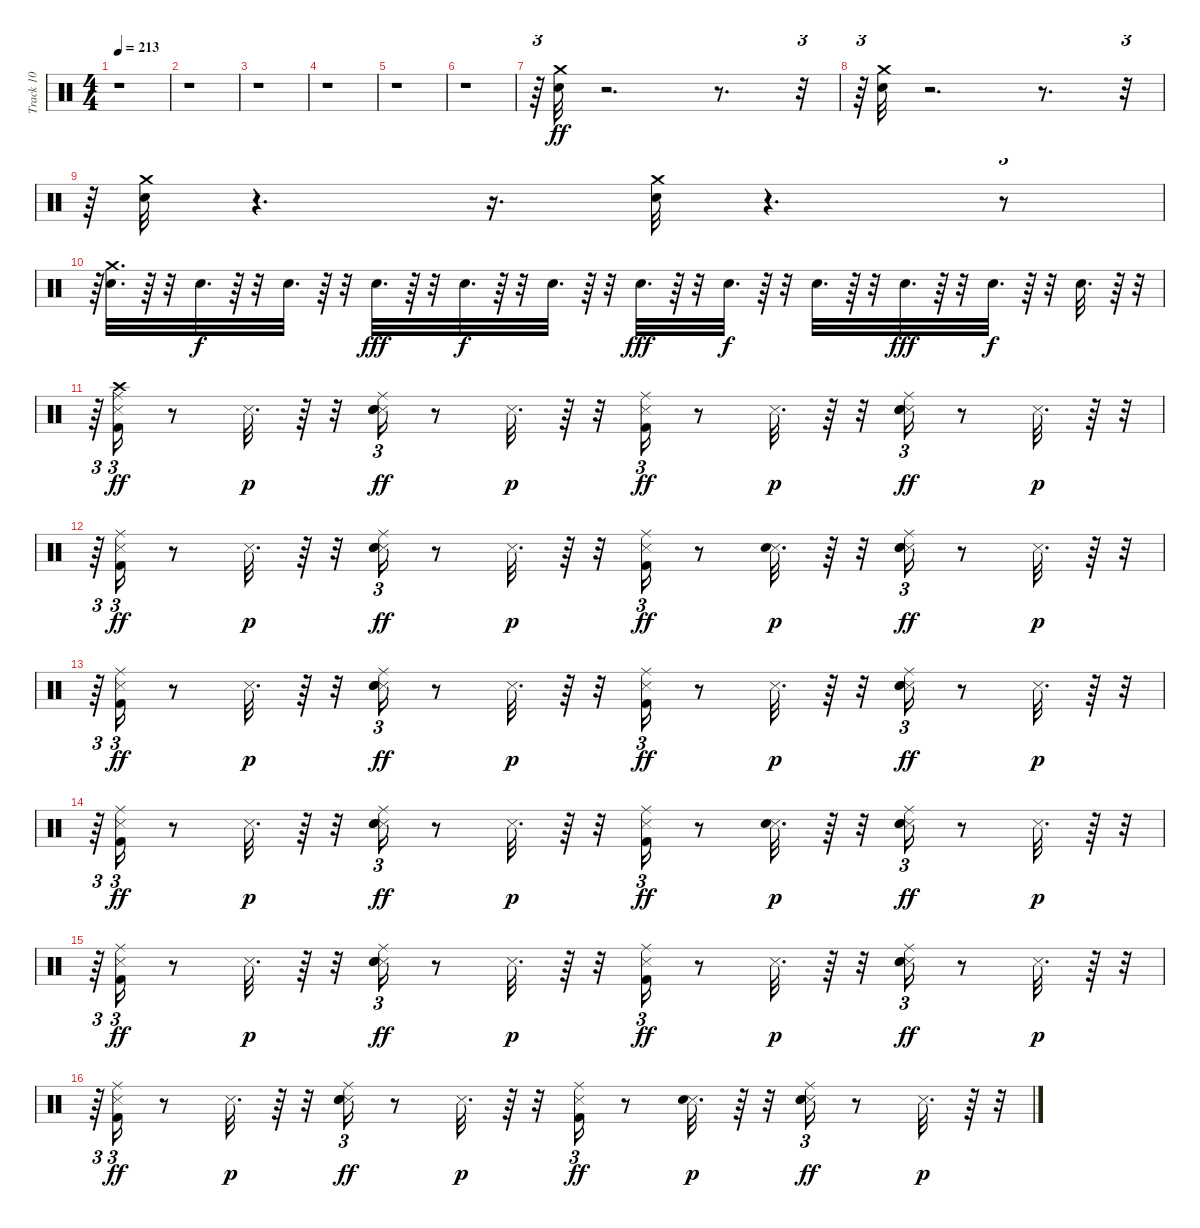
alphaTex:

\track ("Track 10" "Track 10") {instrument percussion}
\staff {score}
\articulation defaults
\ts (4 4)
\tempo 213
\clef neutral
\ks c
r.1{dy ff} |
r.1 |
r.1 |
r.1 |
r.1 |
r.1 |
r.64{tu (3 2)} ("Electric Snare (hit)" "Crash medium (hit)").32 r.2{d} r.8{d} r.32{tu (3 2)} |
r.64{tu (3 2)} ("Electric Snare (hit)" "Crash medium (hit)").32 r.2{d} r.8{d} r.32{tu (3 2)} |
r.64{tu (3 2)} ("Electric Snare (hit)" "Crash medium (hit)").32 r.4{d} r.16{d} ("Electric Snare (hit)" "Crash medium (hit)").32 r.4{d} r.8{tu (3 2)} |
r.64{tu (3 2)} ("Electric Snare (hit)" "Crash medium (hit)").32{d} r.64 r.32 "Electric Snare (hit)".32{d dy f} r.64 r.32 "Electric Snare (hit)".32{d} r.64 r.32 "Electric Snare (hit)".32{d dy fff} r.64 r.32 "Electric Snare (hit)".32{d dy f} r.64 r.32 "Electric Snare (hit)".32{d} r.64 r.32 "Electric Snare (hit)".32{d dy fff} r.64 r.32 "Electric Snare (hit)".32{d dy f} r.64 r.32 "Electric Snare (hit)".32{d} r.64 r.32 "Electric Snare (hit)".32{d dy fff} r.64 r.32 "Electric Snare (hit)".32{d dy f} r.64 r.32 "Electric Snare (hit)".32{d} r.64 r.32{tu (3 2)} |
r.64{tu (3 2)} ("Kick (hit) 2" "Snare (side stick) 3" "Crash high (hit)" "Ride (middle)").16{tu (3 2) dy ff} r.8 "Snare (side stick) 3".32{d dy p} r.64 r.32 ("Snare (side stick) 3" "Hand Clap (hit)" "Electric Snare (hit)" "Ride (middle)").16{tu (3 2) dy ff} r.8 "Snare (side stick) 3".32{d dy p} r.64 r.32 ("Kick (hit) 2" "Snare (side stick) 3" "Ride (middle)").16{tu (3 2) dy ff} r.8 "Snare (side stick) 3".32{d dy p} r.64 r.32 ("Snare (side stick) 3" "Hand Clap (hit)" "Electric Snare (hit)" "Ride (middle)").16{tu (3 2) dy ff} r.8 "Snare (side stick) 3".32{d dy p} r.64 r.32{tu (3 2)} |
r.64{tu (3 2)} ("Kick (hit) 2" "Snare (side stick) 3" "Ride (middle)").16{tu (3 2) dy ff} r.8 "Snare (side stick) 3".32{d dy p} r.64 r.32 ("Snare (side stick) 3" "Hand Clap (hit)" "Electric Snare (hit)" "Ride (middle)").16{tu (3 2) dy ff} r.8 "Snare (side stick) 3".32{d dy p} r.64 r.32 ("Kick (hit) 2" "Snare (side stick) 3" "Ride (middle)").16{tu (3 2) dy ff} r.8 ("Snare (side stick) 3" "Electric Snare (hit)").32{d dy p} r.64 r.32 ("Snare (side stick) 3" "Hand Clap (hit)" "Electric Snare (hit)" "Ride (middle)").16{tu (3 2) dy ff} r.8 "Snare (side stick) 3".32{d dy p} r.64 r.32{tu (3 2)} |
r.64{tu (3 2)} ("Kick (hit) 2" "Snare (side stick) 3" "Ride (middle)").16{tu (3 2) dy ff} r.8 "Snare (side stick) 3".32{d dy p} r.64 r.32 ("Snare (side stick) 3" "Hand Clap (hit)" "Electric Snare (hit)" "Ride (middle)").16{tu (3 2) dy ff} r.8 "Snare (side stick) 3".32{d dy p} r.64 r.32 ("Kick (hit) 2" "Snare (side stick) 3" "Ride (middle)").16{tu (3 2) dy ff} r.8 "Snare (side stick) 3".32{d dy p} r.64 r.32 ("Snare (side stick) 3" "Hand Clap (hit)" "Electric Snare (hit)" "Ride (middle)").16{tu (3 2) dy ff} r.8 "Snare (side stick) 3".32{d dy p} r.64 r.32{tu (3 2)} |
r.64{tu (3 2)} ("Kick (hit) 2" "Snare (side stick) 3" "Ride (middle)").16{tu (3 2) dy ff} r.8 "Snare (side stick) 3".32{d dy p} r.64 r.32 ("Snare (side stick) 3" "Hand Clap (hit)" "Electric Snare (hit)" "Ride (middle)").16{tu (3 2) dy ff} r.8 "Snare (side stick) 3".32{d dy p} r.64 r.32 ("Kick (hit) 2" "Snare (side stick) 3" "Ride (middle)").16{tu (3 2) dy ff} r.8 ("Snare (side stick) 3" "Electric Snare (hit)").32{d dy p} r.64 r.32 ("Snare (side stick) 3" "Hand Clap (hit)" "Electric Snare (hit)" "Ride (middle)").16{tu (3 2) dy ff} r.8 "Snare (side stick) 3".32{d dy p} r.64 r.32{tu (3 2)} |
r.64{tu (3 2)} ("Kick (hit) 2" "Snare (side stick) 3" "Ride (middle)").16{tu (3 2) dy ff} r.8 "Snare (side stick) 3".32{d dy p} r.64 r.32 ("Snare (side stick) 3" "Hand Clap (hit)" "Electric Snare (hit)" "Ride (middle)").16{tu (3 2) dy ff} r.8 "Snare (side stick) 3".32{d dy p} r.64 r.32 ("Kick (hit) 2" "Snare (side stick) 3" "Ride (middle)").16{tu (3 2) dy ff} r.8 "Snare (side stick) 3".32{d dy p} r.64 r.32 ("Snare (side stick) 3" "Hand Clap (hit)" "Electric Snare (hit)" "Ride (middle)").16{tu (3 2) dy ff} r.8 "Snare (side stick) 3".32{d dy p} r.64 r.32{tu (3 2)} |
r.64{tu (3 2)} ("Kick (hit) 2" "Snare (side stick) 3" "Ride (middle)").16{tu (3 2) dy ff} r.8 "Snare (side stick) 3".32{d dy p} r.64 r.32 ("Snare (side stick) 3" "Hand Clap (hit)" "Electric Snare (hit)" "Ride (middle)").16{tu (3 2) dy ff} r.8 "Snare (side stick) 3".32{d dy p} r.64 r.32 ("Kick (hit) 2" "Snare (side stick) 3" "Ride (middle)").16{tu (3 2) dy ff} r.8 ("Snare (side stick) 3" "Electric Snare (hit)").32{d dy p} r.64 r.32 ("Snare (side stick) 3" "Hand Clap (hit)" "Electric Snare (hit)" "Ride (middle)").16{tu (3 2) dy ff} r.8 "Snare (side stick) 3".32{d dy p} r.64 r.32{tu (3 2)}
